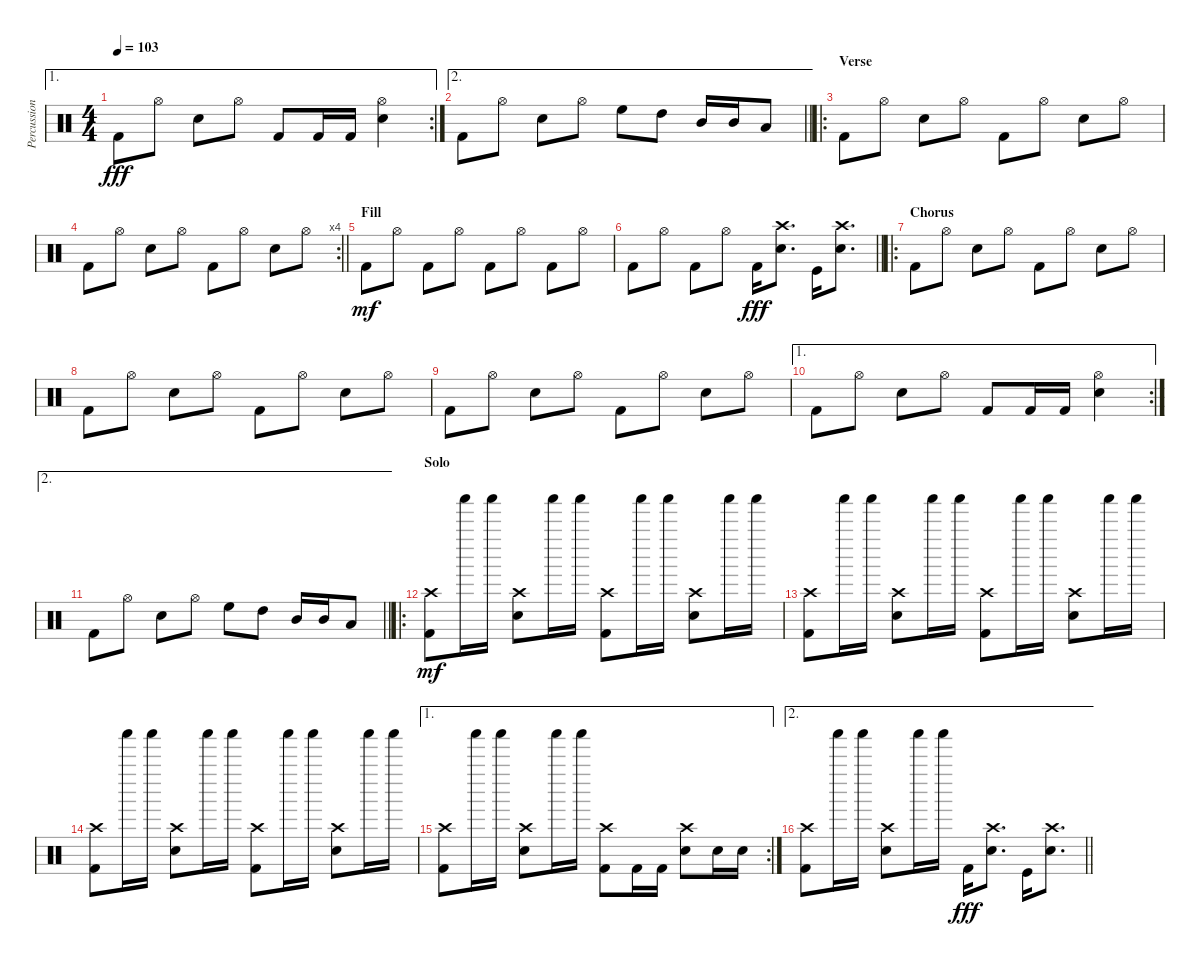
\track ("Percussion" "Percussion") {instrument percussion}
\staff {score}
\articulation defaults
\ae 1
\rc 2
\ts (4 4)
\tempo 103
\clef neutral
\ks c "Kick (hit) 2".8{dy fff} "Hi-Hat (open)".8 "Snare (hit) 2".8 "Hi-Hat (open)".8 "Kick (hit) 2".8 "Kick (hit) 2".16 "Kick (hit) 2".16
("Hi-Hat (open)" "Snare (hit) 2").4 |
\ae 2
\barLineRight lightlight "Kick (hit) 2".8 "Hi-Hat (open)".8 "Snare (hit) 2".8 "Hi-Hat (open)".8 "High Floor Tom (hit)".8 "High Tom (hit)".8 "Mid Tom (hit)".16 "Mid Tom (hit)".16 "Low Tom (hit)".8
|
\ro
\section ("" "Verse")
"Kick (hit) 2".8 "Hi-Hat (open)".8 "Snare (hit) 2".8 "Hi-Hat (open)".8 "Kick (hit) 2".8 "Hi-Hat (open)".8 "Snare (hit) 2".8 "Hi-Hat (open)".8 |
\rc 4
\barLineRight lightlight "Kick (hit) 2".8 "Hi-Hat (open)".8 "Snare (hit) 2".8 "Hi-Hat (open)".8 "Kick (hit) 2".8 "Hi-Hat (open)".8 "Snare (hit) 2".8 "Hi-Hat (open)".8
|
\section ("" "Fill")
"Kick (hit) 2".8{dy mf} "Hi-Hat (open)".8 "Kick (hit) 2".8 "Hi-Hat (open)".8 "Kick (hit) 2".8 "Hi-Hat (open)".8 "Kick (hit) 2".8 "Hi-Hat (open)".8 |
\barLineRight lightlight "Kick (hit) 2".8 "Hi-Hat (open)".8 "Kick (hit) 2".8 "Hi-Hat (open)".8 "Kick (hit) 2".16{dy fff volume 13}
("Crash high (hit)" "Electric Snare (hit)").8{d} "Kick (hit)".16 ("Crash high (hit)" "Snare (hit) 2").8{d} |
\ro
\section ("" "Chorus")
"Kick (hit) 2".8 "Hi-Hat (open)".8 "Snare (hit) 2".8 "Hi-Hat (open)".8 "Kick (hit) 2".8 "Hi-Hat (open)".8 "Snare (hit) 2".8 "Hi-Hat (open)".8 |
"Kick (hit) 2".8 "Hi-Hat (open)".8 "Snare (hit) 2".8 "Hi-Hat (open)".8 "Kick (hit) 2".8 "Hi-Hat (open)".8 "Snare (hit) 2".8 "Hi-Hat (open)".8 |
"Kick (hit) 2".8 "Hi-Hat (open)".8 "Snare (hit) 2".8 "Hi-Hat (open)".8 "Kick (hit) 2".8 "Hi-Hat (open)".8 "Snare (hit) 2".8 "Hi-Hat (open)".8 |
\ae 1
\rc 2 "Kick (hit) 2".8 "Hi-Hat (open)".8 "Snare (hit) 2".8 "Hi-Hat (open)".8 "Kick (hit) 2".8 "Kick (hit) 2".16 "Kick (hit) 2".16
("Hi-Hat (open)" "Snare (hit) 2").4 |
\ae 2
\barLineRight lightlight "Kick (hit) 2".8 "Hi-Hat (open)".8 "Snare (hit) 2".8 "Hi-Hat (open)".8 "High Floor Tom (hit)".8 "High Tom (hit)".8 "Mid Tom (hit)".16 "Mid Tom (hit)".16 "Low Tom (hit)".8
|
\ro
\section ("" "Solo")
("Crash high (hit)" "Kick (hit) 2").8{dy mf} "Shaker (hit)".16 "Shaker (hit)".16 ("Crash high (hit)" "Snare (hit) 2").8 "Shaker (hit)".16 "Shaker (hit)".16 ("Crash high (hit)" "Kick (hit) 2").8 "Shaker (hit)".16 "Shaker (hit)".16 ("Crash high (hit)" "Snare (hit) 2").8 "Shaker (hit)".16 "Shaker (hit)".16 |
("Crash high (hit)" "Kick (hit) 2").8 "Shaker (hit)".16 "Shaker (hit)".16 ("Crash high (hit)" "Snare (hit) 2").8 "Shaker (hit)".16 "Shaker (hit)".16 ("Crash high (hit)" "Kick (hit) 2").8 "Shaker (hit)".16 "Shaker (hit)".16 ("Crash high (hit)" "Snare (hit) 2").8 "Shaker (hit)".16 "Shaker (hit)".16 |
("Crash high (hit)" "Kick (hit) 2").8 "Shaker (hit)".16 "Shaker (hit)".16 ("Crash high (hit)" "Snare (hit) 2").8 "Shaker (hit)".16 "Shaker (hit)".16 ("Crash high (hit)" "Kick (hit) 2").8 "Shaker (hit)".16 "Shaker (hit)".16 ("Crash high (hit)" "Snare (hit) 2").8 "Shaker (hit)".16 "Shaker (hit)".16 |
\ae 1
\rc 2
("Crash high (hit)" "Kick (hit) 2").8 "Shaker (hit)".16 "Shaker (hit)".16 ("Crash high (hit)" "Snare (hit) 2").8 "Shaker (hit)".16 "Shaker (hit)".16 ("Crash high (hit)" "Kick (hit) 2").8 "Kick (hit) 2".16 "Kick (hit) 2".16 ("Crash high (hit)" "Snare (hit) 2").8 "Snare (hit) 2".16 "Snare (hit) 2".16 |
\ae 2
\barLineRight lightlight
("Crash high (hit)" "Kick (hit) 2").8 "Shaker (hit)".16 "Shaker (hit)".16 ("Crash high (hit)" "Snare (hit) 2").8 "Shaker (hit)".16 "Shaker (hit)".16 "Kick (hit) 2".16{dy fff} ("Crash high (hit)" "Electric Snare (hit)").8{d} "Kick (hit)".16 ("Crash high (hit)" "Snare (hit) 2").8{d}
